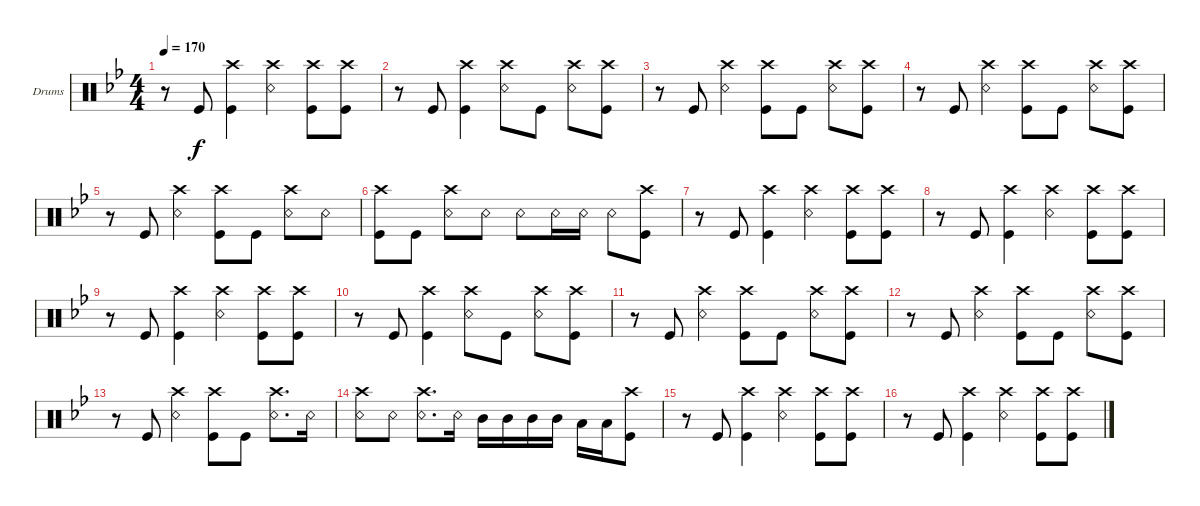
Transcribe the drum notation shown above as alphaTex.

\defaultSystemsLayout 4
\bracketExtendMode groupsimilarinstruments
\firstSystemTrackNameOrientation horizontal
\otherSystemsTrackNameOrientation horizontal
\track ("Drums" "Drums") {instrument percussion}
\staff {score}
\articulation defaults
\ts (4 4)
\tempo 170
\clef neutral
\ks bb
r.8{dy f} "Kick (hit)".8 ("Kick (hit)" "Crash high (hit)").4 ("Snare (rim shot)" "Crash high (hit)").4 ("Kick (hit)" "Crash high (hit)").8 ("Kick (hit)" "Crash high (hit)").8 |
r.8 "Kick (hit)".8 ("Kick (hit)" "Crash high (hit)").4 ("Snare (rim shot)" "Crash high (hit)").8 "Kick (hit)".8 ("Snare (rim shot)" "Crash high (hit)").8 ("Kick (hit)" "Crash high (hit)").8 |
r.8 "Kick (hit)".8 ("Snare (rim shot)" "Crash high (hit)").4 ("Kick (hit)" "Crash high (hit)").8 "Kick (hit)".8 ("Snare (rim shot)" "Crash high (hit)").8 ("Kick (hit)" "Crash high (hit)").8 |
r.8 "Kick (hit)".8 ("Snare (rim shot)" "Crash high (hit)").4 ("Kick (hit)" "Crash high (hit)").8 "Kick (hit)".8 ("Snare (rim shot)" "Crash high (hit)").8 ("Kick (hit)" "Crash high (hit)").8 |
r.8 "Kick (hit)".8 ("Snare (rim shot)" "Crash high (hit)").4 ("Kick (hit)" "Crash high (hit)").8 "Kick (hit)".8 ("Snare (rim shot)" "Crash high (hit)").8 "Snare (rim shot)".8 |
("Kick (hit)" "Crash high (hit)").8 "Kick (hit)".8 ("Snare (rim shot)" "Crash high (hit)").8 "Snare (rim shot)".8 "Snare (rim shot)".8 "Snare (rim shot)".16 "Snare (rim shot)".16 "Snare (rim shot)".8 ("Kick (hit)" "Crash high (hit)").8 |
r.8 "Kick (hit)".8 ("Kick (hit)" "Crash high (hit)").4 ("Snare (rim shot)" "Crash high (hit)").4 ("Kick (hit)" "Crash high (hit)").8 ("Kick (hit)" "Crash high (hit)").8 |
r.8 "Kick (hit)".8 ("Kick (hit)" "Crash high (hit)").4 ("Snare (rim shot)" "Crash high (hit)").4 ("Kick (hit)" "Crash high (hit)").8 ("Kick (hit)" "Crash high (hit)").8 |
r.8 "Kick (hit)".8 ("Kick (hit)" "Crash high (hit)").4 ("Snare (rim shot)" "Crash high (hit)").4 ("Kick (hit)" "Crash high (hit)").8 ("Kick (hit)" "Crash high (hit)").8 |
r.8 "Kick (hit)".8 ("Kick (hit)" "Crash high (hit)").4 ("Snare (rim shot)" "Crash high (hit)").8 "Kick (hit)".8 ("Snare (rim shot)" "Crash high (hit)").8 ("Kick (hit)" "Crash high (hit)").8 |
r.8 "Kick (hit)".8 ("Snare (rim shot)" "Crash high (hit)").4 ("Kick (hit)" "Crash high (hit)").8 "Kick (hit)".8 ("Snare (rim shot)" "Crash high (hit)").8 ("Kick (hit)" "Crash high (hit)").8 |
r.8 "Kick (hit)".8 ("Snare (rim shot)" "Crash high (hit)").4 ("Kick (hit)" "Crash high (hit)").8 "Kick (hit)".8 ("Snare (rim shot)" "Crash high (hit)").8 ("Kick (hit)" "Crash high (hit)").8 |
r.8 "Kick (hit)".8 ("Snare (rim shot)" "Crash high (hit)").4 ("Kick (hit)" "Crash high (hit)").8 "Kick (hit)".8 ("Snare (rim shot)" "Crash high (hit)").8{d} "Snare (rim shot)".16 |
("Crash high (hit)" "Snare (rim shot)").8 "Snare (rim shot)".8 ("Snare (rim shot)" "Crash high (hit)").8{d} "Snare (rim shot)".16 "Mid Tom (hit)".16 "Mid Tom (hit)".16 "Mid Tom (hit)".16 "Mid Tom (hit)".16 "Low Tom (hit)".16 "Low Tom (hit)".16 ("Kick (hit)" "Crash high (hit)").8 |
r.8 "Kick (hit)".8 ("Kick (hit)" "Crash high (hit)").4 ("Snare (rim shot)" "Crash high (hit)").4 ("Kick (hit)" "Crash high (hit)").8 ("Kick (hit)" "Crash high (hit)").8 |
r.8 "Kick (hit)".8 ("Kick (hit)" "Crash high (hit)").4 ("Snare (rim shot)" "Crash high (hit)").4 ("Kick (hit)" "Crash high (hit)").8 ("Kick (hit)" "Crash high (hit)").8
